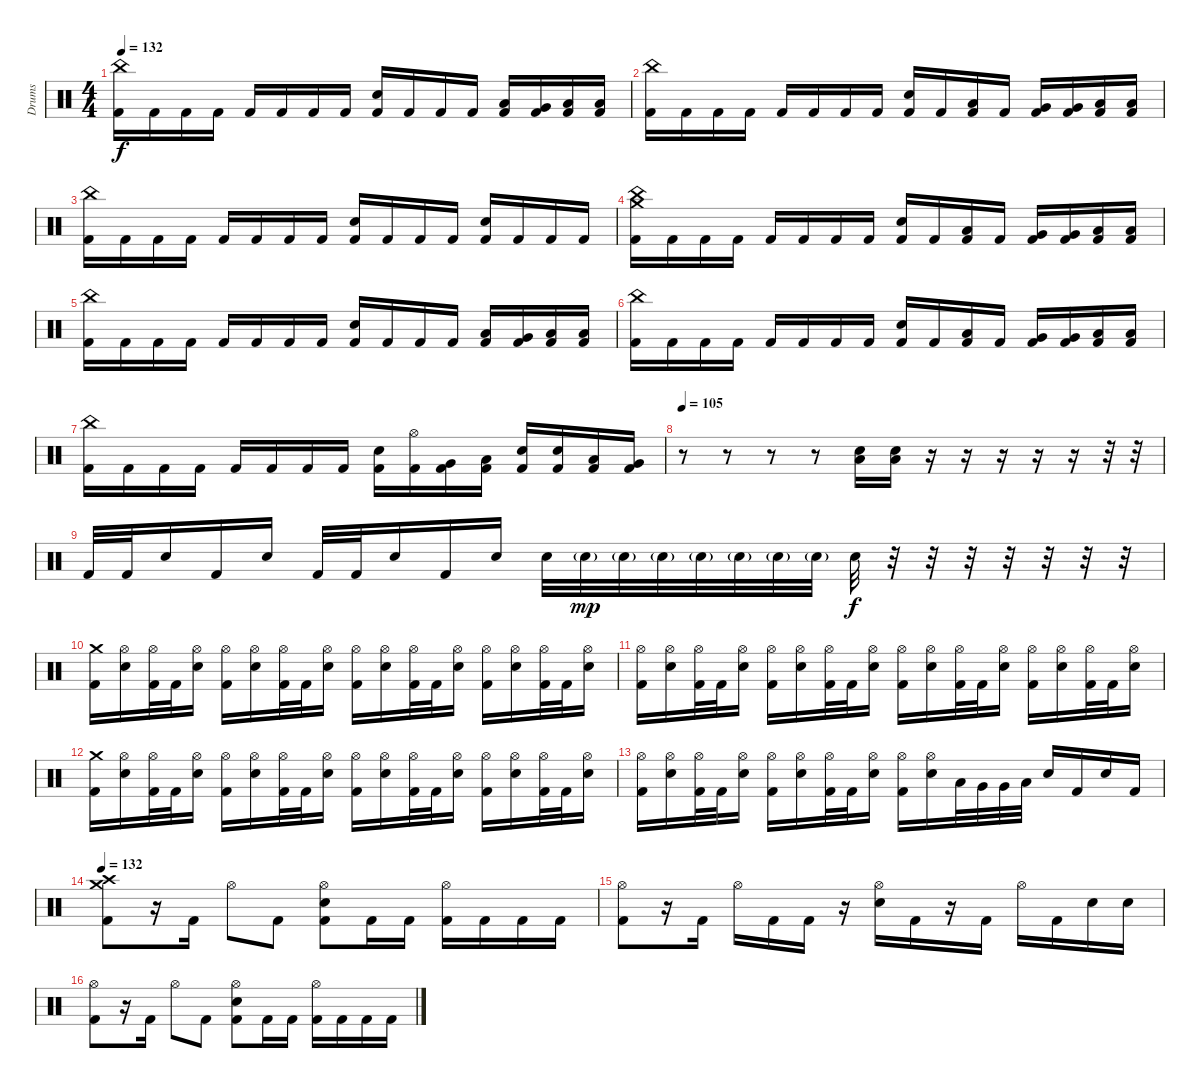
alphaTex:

\track ("Drums" "Drums") {instrument percussion}
\staff {score}
\articulation defaults
\ts (4 4)
\tempo 132
\clef neutral
\ks c
("China (hit)" "Kick (hit) 2").16{dy f} "Kick (hit) 2".16 "Kick (hit) 2".16 "Kick (hit) 2".16 "Kick (hit) 2".16 "Kick (hit) 2".16 "Kick (hit) 2".16 "Kick (hit) 2".16 ("Electric Snare (hit)" "Kick (hit) 2").16 "Kick (hit) 2".16 "Kick (hit) 2".16 "Kick (hit) 2".16 ("Low Tom (hit)" "Kick (hit) 2").16 ("Very Low Tom (hit)" "Kick (hit) 2").16 ("Low Floor Tom (hit)" "Kick (hit) 2").16 ("Low Floor Tom (hit)" "Kick (hit) 2").16 |
("China (hit)" "Kick (hit) 2").16 "Kick (hit) 2".16 "Kick (hit) 2".16 "Kick (hit) 2".16 "Kick (hit) 2".16 "Kick (hit) 2".16 "Kick (hit) 2".16 "Kick (hit) 2".16 ("Electric Snare (hit)" "Kick (hit) 2").16 "Kick (hit) 2".16 ("Low Tom (hit)" "Kick (hit) 2").16 "Kick (hit) 2".16 ("Very Low Tom (hit)" "Kick (hit) 2").16 ("Very Low Tom (hit)" "Kick (hit) 2").16 ("Low Floor Tom (hit)" "Kick (hit) 2").16 ("Low Floor Tom (hit)" "Kick (hit) 2").16 |
("China (hit)" "Kick (hit) 2").16 "Kick (hit) 2".16 "Kick (hit) 2".16 "Kick (hit) 2".16 "Kick (hit) 2".16 "Kick (hit) 2".16 "Kick (hit) 2".16 "Kick (hit) 2".16 ("Electric Snare (hit)" "Kick (hit) 2").16 "Kick (hit) 2".16 "Kick (hit) 2".16 "Kick (hit) 2".16 ("Electric Snare (hit)" "Kick (hit) 2").16 "Kick (hit) 2".16 "Kick (hit) 2".16 "Kick (hit) 2".16 |
("China (hit)" "Crash medium (hit)" "Kick (hit) 2").16 "Kick (hit) 2".16 "Kick (hit) 2".16 "Kick (hit) 2".16 "Kick (hit) 2".16 "Kick (hit) 2".16 "Kick (hit) 2".16 "Kick (hit) 2".16 ("Electric Snare (hit)" "Kick (hit) 2").16 "Kick (hit) 2".16 ("Low Tom (hit)" "Kick (hit) 2").16 "Kick (hit) 2".16 ("Very Low Tom (hit)" "Kick (hit) 2").16 ("Very Low Tom (hit)" "Kick (hit) 2").16 ("Low Floor Tom (hit)" "Kick (hit) 2").16 ("Low Floor Tom (hit)" "Kick (hit) 2").16 |
("China (hit)" "Kick (hit) 2").16 "Kick (hit) 2".16 "Kick (hit) 2".16 "Kick (hit) 2".16 "Kick (hit) 2".16 "Kick (hit) 2".16 "Kick (hit) 2".16 "Kick (hit) 2".16 ("Electric Snare (hit)" "Kick (hit) 2").16 "Kick (hit) 2".16 "Kick (hit) 2".16 "Kick (hit) 2".16 ("Low Tom (hit)" "Kick (hit) 2").16 ("Very Low Tom (hit)" "Kick (hit) 2").16 ("Low Floor Tom (hit)" "Kick (hit) 2").16 ("Low Floor Tom (hit)" "Kick (hit) 2").16 |
("China (hit)" "Kick (hit) 2").16 "Kick (hit) 2".16 "Kick (hit) 2".16 "Kick (hit) 2".16 "Kick (hit) 2".16 "Kick (hit) 2".16 "Kick (hit) 2".16 "Kick (hit) 2".16 ("Electric Snare (hit)" "Kick (hit) 2").16 "Kick (hit) 2".16 ("Low Tom (hit)" "Kick (hit) 2").16 "Kick (hit) 2".16 ("Very Low Tom (hit)" "Kick (hit) 2").16 ("Very Low Tom (hit)" "Kick (hit) 2").16 ("Low Floor Tom (hit)" "Kick (hit) 2").16 ("Low Floor Tom (hit)" "Kick (hit) 2").16 |
("China (hit)" "Kick (hit) 2").16 "Kick (hit) 2".16 "Kick (hit) 2".16 "Kick (hit) 2".16 "Kick (hit) 2".16 "Kick (hit) 2".16 "Kick (hit) 2".16 "Kick (hit) 2".16 ("Electric Snare (hit)" "Kick (hit) 2").16 ("Hi-Hat (open)" "Kick (hit) 2").16 ("Very Low Tom (hit)" "Kick (hit) 2").16 ("Low Floor Tom (hit)" "Kick (hit) 2").16 ("Electric Snare (hit)" "Kick (hit) 2").16 ("Electric Snare (hit)" "Kick (hit) 2").16 ("Low Tom (hit)" "Kick (hit) 2").16 ("Very Low Tom (hit)" "Kick (hit) 2").16 |
\tempo 105
r.8 r.8 r.8 r.8 ("Low Floor Tom (hit)" "Electric Snare (hit)").16 ("Low Floor Tom (hit)" "Electric Snare (hit)").16 r.16 r.16 r.16 r.16 r.16 r.32 r.32 |
"Kick (hit) 2".32 "Kick (hit) 2".32 "Electric Snare (hit)".16 "Kick (hit) 2".16 "Electric Snare (hit)".16 "Kick (hit) 2".32 "Kick (hit) 2".32 "Electric Snare (hit)".16 "Kick (hit) 2".16 "Electric Snare (hit)".16 "Electric Snare (hit)".32 "Snare (hit) 2"{g}.32{dy mp} "Snare (hit) 2"{g}.32 "Snare (hit) 2"{g}.32 "Snare (hit) 2"{g}.32 "Snare (hit) 2"{g}.32 "Snare (hit) 2"{g}.32 "Snare (hit) 2"{g}.32 "Electric Snare (hit)".32{dy f} r.32 r.32 r.32 r.32 r.32 r.32 r.32 |
("Crash medium (hit)" "Kick (hit) 2").16 ("Hi-Hat (open)" "Electric Snare (hit)").16 ("Hi-Hat (open)" "Kick (hit) 2").32 "Kick (hit) 2".32 ("Hi-Hat (open)" "Electric Snare (hit)").16 ("Hi-Hat (open)" "Kick (hit) 2").16 ("Hi-Hat (open)" "Electric Snare (hit)").16 ("Hi-Hat (open)" "Kick (hit) 2").32 "Kick (hit) 2".32 ("Hi-Hat (open)" "Electric Snare (hit)").16 ("Hi-Hat (open)" "Kick (hit) 2").16 ("Hi-Hat (open)" "Electric Snare (hit)").16 ("Hi-Hat (open)" "Kick (hit) 2").32 "Kick (hit) 2".32 ("Hi-Hat (open)" "Electric Snare (hit)").16 ("Hi-Hat (open)" "Kick (hit) 2").16 ("Hi-Hat (open)" "Electric Snare (hit)").16 ("Hi-Hat (open)" "Kick (hit) 2").32 "Kick (hit) 2".32 ("Hi-Hat (open)" "Electric Snare (hit)").16 |
("Hi-Hat (open)" "Kick (hit) 2").16 ("Hi-Hat (open)" "Electric Snare (hit)").16 ("Hi-Hat (open)" "Kick (hit) 2").32 "Kick (hit) 2".32 ("Hi-Hat (open)" "Electric Snare (hit)").16 ("Hi-Hat (open)" "Kick (hit) 2").16 ("Hi-Hat (open)" "Electric Snare (hit)").16 ("Hi-Hat (open)" "Kick (hit) 2").32 "Kick (hit) 2".32 ("Hi-Hat (open)" "Electric Snare (hit)").16 ("Hi-Hat (open)" "Kick (hit) 2").16 ("Hi-Hat (open)" "Electric Snare (hit)").16 ("Hi-Hat (open)" "Kick (hit) 2").32 "Kick (hit) 2".32 ("Hi-Hat (open)" "Electric Snare (hit)").16 ("Hi-Hat (open)" "Kick (hit) 2").16 ("Hi-Hat (open)" "Electric Snare (hit)").16 ("Hi-Hat (open)" "Kick (hit) 2").32 "Kick (hit) 2".32 ("Hi-Hat (open)" "Electric Snare (hit)").16 |
("Crash medium (hit)" "Kick (hit) 2").16 ("Hi-Hat (open)" "Electric Snare (hit)").16 ("Hi-Hat (open)" "Kick (hit) 2").32 "Kick (hit) 2".32 ("Hi-Hat (open)" "Electric Snare (hit)").16 ("Hi-Hat (open)" "Kick (hit) 2").16 ("Hi-Hat (open)" "Electric Snare (hit)").16 ("Hi-Hat (open)" "Kick (hit) 2").32 "Kick (hit) 2".32 ("Hi-Hat (open)" "Electric Snare (hit)").16 ("Hi-Hat (open)" "Kick (hit) 2").16 ("Hi-Hat (open)" "Electric Snare (hit)").16 ("Hi-Hat (open)" "Kick (hit) 2").32 "Kick (hit) 2".32 ("Hi-Hat (open)" "Electric Snare (hit)").16 ("Hi-Hat (open)" "Kick (hit) 2").16 ("Hi-Hat (open)" "Electric Snare (hit)").16 ("Hi-Hat (open)" "Kick (hit) 2").32 "Kick (hit) 2".32 ("Hi-Hat (open)" "Electric Snare (hit)").16 |
("Hi-Hat (open)" "Kick (hit) 2").16 ("Hi-Hat (open)" "Electric Snare (hit)").16 ("Hi-Hat (open)" "Kick (hit) 2").32 "Kick (hit) 2".32 ("Hi-Hat (open)" "Electric Snare (hit)").16 ("Hi-Hat (open)" "Kick (hit) 2").16 ("Hi-Hat (open)" "Electric Snare (hit)").16 ("Hi-Hat (open)" "Kick (hit) 2").32 "Kick (hit) 2".32 ("Hi-Hat (open)" "Electric Snare (hit)").16 ("Hi-Hat (open)" "Kick (hit) 2").16 ("Hi-Hat (open)" "Electric Snare (hit)").16 "Low Tom (hit)".32 "Very Low Tom (hit)".32 "Very Low Tom (hit)".32 "Low Floor Tom (hit)".32 "Electric Snare (hit)".16 "Kick (hit) 2".16 "Electric Snare (hit)".16 "Kick (hit) 2".16 |
\tempo 132
("Crash medium (hit)" "Crash high (hit)" "Kick (hit) 2").8 r.16 "Kick (hit) 2".16 "Hi-Hat (open)".8 "Kick (hit) 2".8 ("Hi-Hat (open)" "Electric Snare (hit)" "Kick (hit) 2").8 "Kick (hit) 2".16 "Kick (hit) 2".16 ("Hi-Hat (open)" "Kick (hit) 2").16 "Kick (hit) 2".16 "Kick (hit) 2".16 "Kick (hit) 2".16 |
("Hi-Hat (open)" "Kick (hit) 2").8 r.16 "Kick (hit) 2".16 "Hi-Hat (open)".16 "Kick (hit) 2".16 "Kick (hit) 2".16 r.16 ("Hi-Hat (open)" "Electric Snare (hit)").16 "Kick (hit) 2".16 r.16 "Kick (hit) 2".16 "Hi-Hat (open)".16 "Kick (hit) 2".16 "Electric Snare (hit)".16 "Electric Snare (hit)".16 |
("Hi-Hat (open)" "Kick (hit) 2").8 r.16 "Kick (hit) 2".16 "Hi-Hat (open)".8 "Kick (hit) 2".8 ("Hi-Hat (open)" "Electric Snare (hit)" "Kick (hit) 2").8 "Kick (hit) 2".16 "Kick (hit) 2".16 ("Hi-Hat (open)" "Kick (hit) 2").16 "Kick (hit) 2".16 "Kick (hit) 2".16 "Kick (hit) 2".16
